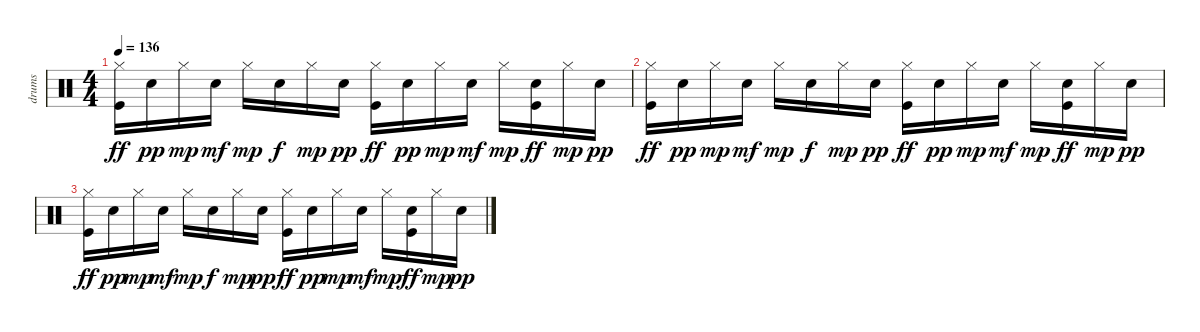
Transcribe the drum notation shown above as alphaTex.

\track ("drums" "drums") {instrument percussion}
\staff {score}
\articulation defaults
\ts (4 4)
\tempo 136
\clef neutral
\ks c
("Hi-Hat (closed)" "Kick (hit)").16{dy ff} "Snare (hit) 2".16{dy pp} "Hi-Hat (closed)".16{dy mp} "Snare (hit) 2".16{dy mf} "Hi-Hat (closed)".16{dy mp} "Snare (hit) 2".16{dy f} "Hi-Hat (closed)".16{dy mp} "Snare (hit) 2".16{dy pp} ("Hi-Hat (closed)" "Kick (hit)").16{dy ff} "Snare (hit) 2".16{dy pp} "Hi-Hat (closed)".16{dy mp} "Snare (hit) 2".16{dy mf} "Hi-Hat (closed)".16{dy mp} ("Snare (hit) 2" "Kick (hit)").16{dy ff} "Hi-Hat (closed)".16{dy mp} "Snare (hit) 2".16{dy pp} |
("Hi-Hat (closed)" "Kick (hit)").16{dy ff} "Snare (hit) 2".16{dy pp} "Hi-Hat (closed)".16{dy mp} "Snare (hit) 2".16{dy mf} "Hi-Hat (closed)".16{dy mp} "Snare (hit) 2".16{dy f} "Hi-Hat (closed)".16{dy mp} "Snare (hit) 2".16{dy pp} ("Hi-Hat (closed)" "Kick (hit)").16{dy ff} "Snare (hit) 2".16{dy pp} "Hi-Hat (closed)".16{dy mp} "Snare (hit) 2".16{dy mf} "Hi-Hat (closed)".16{dy mp} ("Snare (hit) 2" "Kick (hit)").16{dy ff} "Hi-Hat (closed)".16{dy mp} "Snare (hit) 2".16{dy pp} |
("Hi-Hat (closed)" "Kick (hit)").16{dy ff} "Snare (hit) 2".16{dy pp} "Hi-Hat (closed)".16{dy mp} "Snare (hit) 2".16{dy mf} "Hi-Hat (closed)".16{dy mp} "Snare (hit) 2".16{dy f} "Hi-Hat (closed)".16{dy mp} "Snare (hit) 2".16{dy pp} ("Hi-Hat (closed)" "Kick (hit)").16{dy ff} "Snare (hit) 2".16{dy pp} "Hi-Hat (closed)".16{dy mp} "Snare (hit) 2".16{dy mf} "Hi-Hat (closed)".16{dy mp} ("Snare (hit) 2" "Kick (hit)").16{dy ff} "Hi-Hat (closed)".16{dy mp} "Snare (hit) 2".16{dy pp}
